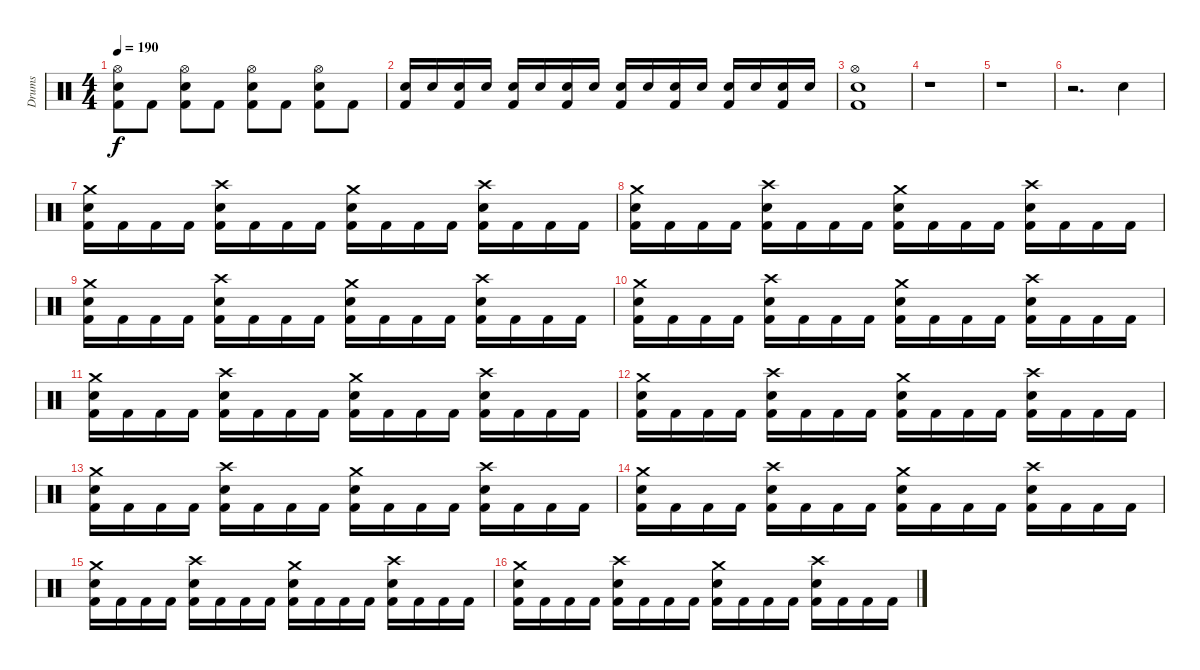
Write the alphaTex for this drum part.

\track ("Drums" "Drums") {instrument percussion}
\staff {score}
\articulation defaults
\ts (4 4)
\tempo 190
\clef neutral
\ks c
("Hi-Hat (open)" "Kick (hit) 2" "Snare (hit) 2").8{dy f} "Kick (hit) 2".8 ("Hi-Hat (open)" "Kick (hit) 2" "Snare (hit) 2").8 "Kick (hit) 2".8 ("Hi-Hat (open)" "Kick (hit) 2" "Snare (hit) 2").8 "Kick (hit) 2".8 ("Hi-Hat (open)" "Kick (hit) 2" "Snare (hit) 2").8 "Kick (hit) 2".8 |
("Kick (hit) 2" "Snare (hit) 2").16 "Snare (hit) 2".16 ("Kick (hit) 2" "Snare (hit) 2").16 "Snare (hit) 2".16 ("Kick (hit) 2" "Snare (hit) 2").16 "Snare (hit) 2".16 ("Kick (hit) 2" "Snare (hit) 2").16 "Snare (hit) 2".16 ("Kick (hit) 2" "Snare (hit) 2").16 "Snare (hit) 2".16 ("Kick (hit) 2" "Snare (hit) 2").16 "Snare (hit) 2".16 ("Kick (hit) 2" "Snare (hit) 2").16 "Snare (hit) 2".16 ("Kick (hit) 2" "Snare (hit) 2").16 "Snare (hit) 2".16 |
("Hi-Hat (open)" "Kick (hit) 2" "Snare (hit) 2").1 |
r.1 |
r.1 |
r.2{d} "Snare (hit) 2".4 |
("Crash medium (hit)" "Kick (hit) 2" "Snare (hit) 2").16 "Kick (hit) 2".16 "Kick (hit) 2".16 "Kick (hit) 2".16 ("Crash high (hit)" "Kick (hit) 2" "Snare (hit) 2").16 "Kick (hit) 2".16 "Kick (hit) 2".16 "Kick (hit) 2".16 ("Crash medium (hit)" "Kick (hit) 2" "Snare (hit) 2").16 "Kick (hit) 2".16 "Kick (hit) 2".16 "Kick (hit) 2".16 ("Crash high (hit)" "Kick (hit) 2" "Snare (hit) 2").16 "Kick (hit) 2".16 "Kick (hit) 2".16 "Kick (hit) 2".16 |
("Crash medium (hit)" "Kick (hit) 2" "Snare (hit) 2").16 "Kick (hit) 2".16 "Kick (hit) 2".16 "Kick (hit) 2".16 ("Crash high (hit)" "Kick (hit) 2" "Snare (hit) 2").16 "Kick (hit) 2".16 "Kick (hit) 2".16 "Kick (hit) 2".16 ("Crash medium (hit)" "Kick (hit) 2" "Snare (hit) 2").16 "Kick (hit) 2".16 "Kick (hit) 2".16 "Kick (hit) 2".16 ("Crash high (hit)" "Kick (hit) 2" "Snare (hit) 2").16 "Kick (hit) 2".16 "Kick (hit) 2".16 "Kick (hit) 2".16 |
("Crash medium (hit)" "Kick (hit) 2" "Snare (hit) 2").16 "Kick (hit) 2".16 "Kick (hit) 2".16 "Kick (hit) 2".16 ("Crash high (hit)" "Kick (hit) 2" "Snare (hit) 2").16 "Kick (hit) 2".16 "Kick (hit) 2".16 "Kick (hit) 2".16 ("Crash medium (hit)" "Kick (hit) 2" "Snare (hit) 2").16 "Kick (hit) 2".16 "Kick (hit) 2".16 "Kick (hit) 2".16 ("Crash high (hit)" "Kick (hit) 2" "Snare (hit) 2").16 "Kick (hit) 2".16 "Kick (hit) 2".16 "Kick (hit) 2".16 |
("Crash medium (hit)" "Kick (hit) 2" "Snare (hit) 2").16 "Kick (hit) 2".16 "Kick (hit) 2".16 "Kick (hit) 2".16 ("Crash high (hit)" "Kick (hit) 2" "Snare (hit) 2").16 "Kick (hit) 2".16 "Kick (hit) 2".16 "Kick (hit) 2".16 ("Crash medium (hit)" "Kick (hit) 2" "Snare (hit) 2").16 "Kick (hit) 2".16 "Kick (hit) 2".16 "Kick (hit) 2".16 ("Crash high (hit)" "Kick (hit) 2" "Snare (hit) 2").16 "Kick (hit) 2".16 "Kick (hit) 2".16 "Kick (hit) 2".16 |
("Crash medium (hit)" "Kick (hit) 2" "Snare (hit) 2").16 "Kick (hit) 2".16 "Kick (hit) 2".16 "Kick (hit) 2".16 ("Crash high (hit)" "Kick (hit) 2" "Snare (hit) 2").16 "Kick (hit) 2".16 "Kick (hit) 2".16 "Kick (hit) 2".16 ("Crash medium (hit)" "Kick (hit) 2" "Snare (hit) 2").16 "Kick (hit) 2".16 "Kick (hit) 2".16 "Kick (hit) 2".16 ("Crash high (hit)" "Kick (hit) 2" "Snare (hit) 2").16 "Kick (hit) 2".16 "Kick (hit) 2".16 "Kick (hit) 2".16 |
("Crash medium (hit)" "Kick (hit) 2" "Snare (hit) 2").16 "Kick (hit) 2".16 "Kick (hit) 2".16 "Kick (hit) 2".16 ("Crash high (hit)" "Kick (hit) 2" "Snare (hit) 2").16 "Kick (hit) 2".16 "Kick (hit) 2".16 "Kick (hit) 2".16 ("Crash medium (hit)" "Kick (hit) 2" "Snare (hit) 2").16 "Kick (hit) 2".16 "Kick (hit) 2".16 "Kick (hit) 2".16 ("Crash high (hit)" "Kick (hit) 2" "Snare (hit) 2").16 "Kick (hit) 2".16 "Kick (hit) 2".16 "Kick (hit) 2".16 |
("Crash medium (hit)" "Kick (hit) 2" "Snare (hit) 2").16 "Kick (hit) 2".16 "Kick (hit) 2".16 "Kick (hit) 2".16 ("Crash high (hit)" "Kick (hit) 2" "Snare (hit) 2").16 "Kick (hit) 2".16 "Kick (hit) 2".16 "Kick (hit) 2".16 ("Crash medium (hit)" "Kick (hit) 2" "Snare (hit) 2").16 "Kick (hit) 2".16 "Kick (hit) 2".16 "Kick (hit) 2".16 ("Crash high (hit)" "Kick (hit) 2" "Snare (hit) 2").16 "Kick (hit) 2".16 "Kick (hit) 2".16 "Kick (hit) 2".16 |
("Crash medium (hit)" "Kick (hit) 2" "Snare (hit) 2").16 "Kick (hit) 2".16 "Kick (hit) 2".16 "Kick (hit) 2".16 ("Crash high (hit)" "Kick (hit) 2" "Snare (hit) 2").16 "Kick (hit) 2".16 "Kick (hit) 2".16 "Kick (hit) 2".16 ("Crash medium (hit)" "Kick (hit) 2" "Snare (hit) 2").16 "Kick (hit) 2".16 "Kick (hit) 2".16 "Kick (hit) 2".16 ("Crash high (hit)" "Kick (hit) 2" "Snare (hit) 2").16 "Kick (hit) 2".16 "Kick (hit) 2".16 "Kick (hit) 2".16 |
("Crash medium (hit)" "Kick (hit) 2" "Snare (hit) 2").16 "Kick (hit) 2".16 "Kick (hit) 2".16 "Kick (hit) 2".16 ("Crash high (hit)" "Kick (hit) 2" "Snare (hit) 2").16 "Kick (hit) 2".16 "Kick (hit) 2".16 "Kick (hit) 2".16 ("Crash medium (hit)" "Kick (hit) 2" "Snare (hit) 2").16 "Kick (hit) 2".16 "Kick (hit) 2".16 "Kick (hit) 2".16 ("Crash high (hit)" "Kick (hit) 2" "Snare (hit) 2").16 "Kick (hit) 2".16 "Kick (hit) 2".16 "Kick (hit) 2".16 |
("Crash medium (hit)" "Kick (hit) 2" "Snare (hit) 2").16 "Kick (hit) 2".16 "Kick (hit) 2".16 "Kick (hit) 2".16 ("Crash high (hit)" "Kick (hit) 2" "Snare (hit) 2").16 "Kick (hit) 2".16 "Kick (hit) 2".16 "Kick (hit) 2".16 ("Crash medium (hit)" "Kick (hit) 2" "Snare (hit) 2").16 "Kick (hit) 2".16 "Kick (hit) 2".16 "Kick (hit) 2".16 ("Crash high (hit)" "Kick (hit) 2" "Snare (hit) 2").16 "Kick (hit) 2".16 "Kick (hit) 2".16 "Kick (hit) 2".16
